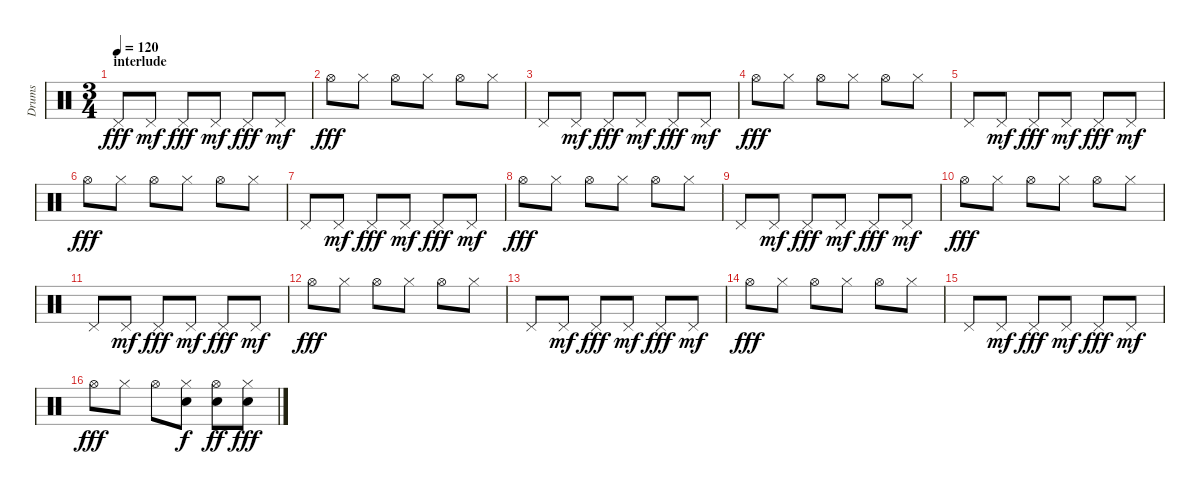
\track ("Drums" "Drums") {instrument percussion}
\staff {score}
\articulation defaults
\ts (3 4)
\section ("" "interlude")
\tempo 120
\clef neutral
\ks c "Pedal Hi-Hat (hit)".8{dy fff} "Pedal Hi-Hat (hit)".8{dy mf} "Pedal Hi-Hat (hit)".8{dy fff} "Pedal Hi-Hat (hit)".8{dy mf} "Pedal Hi-Hat (hit)".8{dy fff} "Pedal Hi-Hat (hit)".8{dy mf}
|
"Hi-Hat (open)".8{dy fff} "Hi-Hat (closed)".8 "Hi-Hat (open)".8 "Hi-Hat (closed)".8 "Hi-Hat (open)".8 "Hi-Hat (closed)".8 |
"Pedal Hi-Hat (hit)".8 "Pedal Hi-Hat (hit)".8{dy mf} "Pedal Hi-Hat (hit)".8{dy fff} "Pedal Hi-Hat (hit)".8{dy mf} "Pedal Hi-Hat (hit)".8{dy fff} "Pedal Hi-Hat (hit)".8{dy mf} |
"Hi-Hat (open)".8{dy fff} "Hi-Hat (closed)".8 "Hi-Hat (open)".8 "Hi-Hat (closed)".8 "Hi-Hat (open)".8 "Hi-Hat (closed)".8 |
"Pedal Hi-Hat (hit)".8 "Pedal Hi-Hat (hit)".8{dy mf} "Pedal Hi-Hat (hit)".8{dy fff} "Pedal Hi-Hat (hit)".8{dy mf} "Pedal Hi-Hat (hit)".8{dy fff} "Pedal Hi-Hat (hit)".8{dy mf} |
"Hi-Hat (open)".8{dy fff} "Hi-Hat (closed)".8 "Hi-Hat (open)".8 "Hi-Hat (closed)".8 "Hi-Hat (open)".8 "Hi-Hat (closed)".8 |
"Pedal Hi-Hat (hit)".8 "Pedal Hi-Hat (hit)".8{dy mf} "Pedal Hi-Hat (hit)".8{dy fff} "Pedal Hi-Hat (hit)".8{dy mf} "Pedal Hi-Hat (hit)".8{dy fff} "Pedal Hi-Hat (hit)".8{dy mf} |
"Hi-Hat (open)".8{dy fff} "Hi-Hat (closed)".8 "Hi-Hat (open)".8 "Hi-Hat (closed)".8 "Hi-Hat (open)".8 "Hi-Hat (closed)".8 |
"Pedal Hi-Hat (hit)".8 "Pedal Hi-Hat (hit)".8{dy mf} "Pedal Hi-Hat (hit)".8{dy fff} "Pedal Hi-Hat (hit)".8{dy mf} "Pedal Hi-Hat (hit)".8{dy fff} "Pedal Hi-Hat (hit)".8{dy mf} |
"Hi-Hat (open)".8{dy fff} "Hi-Hat (closed)".8 "Hi-Hat (open)".8 "Hi-Hat (closed)".8 "Hi-Hat (open)".8 "Hi-Hat (closed)".8 |
"Pedal Hi-Hat (hit)".8 "Pedal Hi-Hat (hit)".8{dy mf} "Pedal Hi-Hat (hit)".8{dy fff} "Pedal Hi-Hat (hit)".8{dy mf} "Pedal Hi-Hat (hit)".8{dy fff} "Pedal Hi-Hat (hit)".8{dy mf} |
"Hi-Hat (open)".8{dy fff} "Hi-Hat (closed)".8 "Hi-Hat (open)".8 "Hi-Hat (closed)".8 "Hi-Hat (open)".8 "Hi-Hat (closed)".8 |
"Pedal Hi-Hat (hit)".8 "Pedal Hi-Hat (hit)".8{dy mf} "Pedal Hi-Hat (hit)".8{dy fff} "Pedal Hi-Hat (hit)".8{dy mf} "Pedal Hi-Hat (hit)".8{dy fff} "Pedal Hi-Hat (hit)".8{dy mf} |
"Hi-Hat (open)".8{dy fff} "Hi-Hat (closed)".8 "Hi-Hat (open)".8 "Hi-Hat (closed)".8 "Hi-Hat (open)".8 "Hi-Hat (closed)".8 |
"Pedal Hi-Hat (hit)".8 "Pedal Hi-Hat (hit)".8{dy mf} "Pedal Hi-Hat (hit)".8{dy fff} "Pedal Hi-Hat (hit)".8{dy mf} "Pedal Hi-Hat (hit)".8{dy fff} "Pedal Hi-Hat (hit)".8{dy mf} |
"Hi-Hat (open)".8{dy fff} "Hi-Hat (closed)".8 "Hi-Hat (open)".8 ("Hi-Hat (closed)" "Electric Snare (hit)").8{dy f} ("Hi-Hat (open)" "Electric Snare (hit)").8{dy ff} ("Hi-Hat (closed)" "Electric Snare (hit)").8{dy fff}
